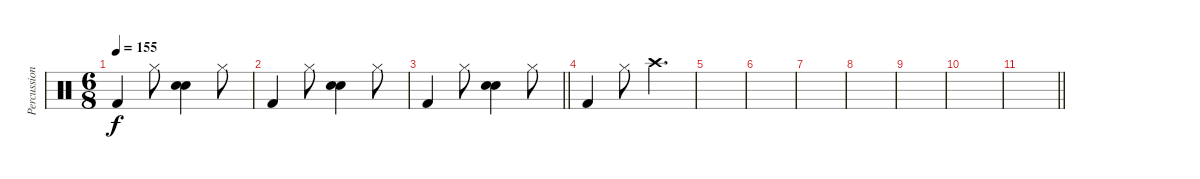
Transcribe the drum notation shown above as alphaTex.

\track ("Percussion" "Percussion") {instrument percussion}
\staff {score}
\articulation defaults
\ts (6 8)
\tempo 155
\clef neutral
\ks c "Kick (hit) 2".4{dy f} "Hi-Hat (closed)".8
("Hand Clap (hit)" "Electric Snare (hit)").4 "Hi-Hat (closed)".8 |
"Kick (hit) 2".4 "Hi-Hat (closed)".8 ("Hand Clap (hit)" "Electric Snare (hit)").4 "Hi-Hat (closed)".8 |
\barLineRight lightlight "Kick (hit) 2".4 "Hi-Hat (closed)".8
("Hand Clap (hit)" "Electric Snare (hit)").4 "Hi-Hat (closed)".8 |
"Kick (hit) 2".4 "Hi-Hat (closed)".8 "Crash high (hit)".4{d} |
|
|
|
|
|
|
\barLineRight lightlight
